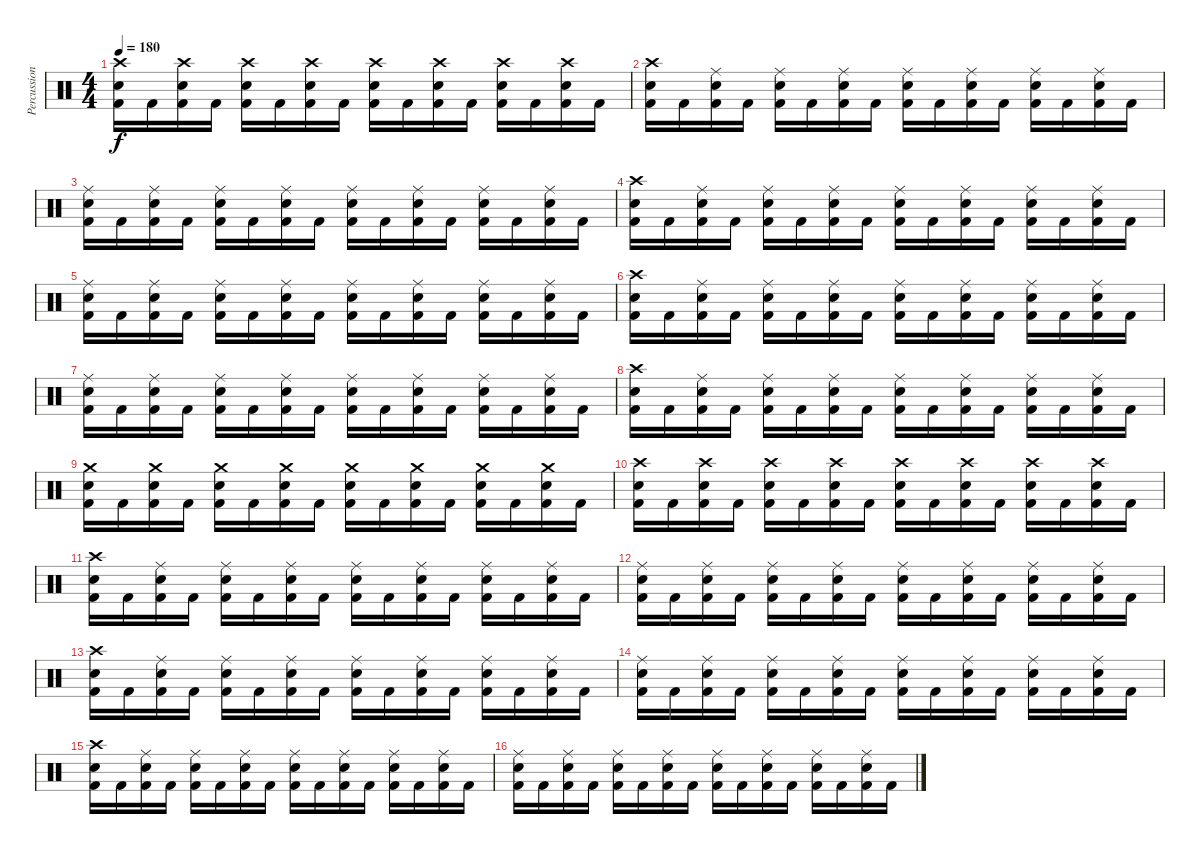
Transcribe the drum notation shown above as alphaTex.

\track ("Percussion" "Percussion") {instrument percussion}
\staff {score}
\articulation defaults
\ts (4 4)
\tempo 180
\clef neutral
\ks c
("Crash high (hit)" "Snare (hit) 2" "Kick (hit) 2").16{dy f} "Kick (hit) 2".16 ("Crash high (hit)" "Snare (hit) 2" "Kick (hit) 2").16 "Kick (hit) 2".16 ("Crash high (hit)" "Snare (hit) 2" "Kick (hit) 2").16 "Kick (hit) 2".16 ("Crash high (hit)" "Snare (hit) 2" "Kick (hit) 2").16 "Kick (hit) 2".16 ("Crash high (hit)" "Snare (hit) 2" "Kick (hit) 2").16 "Kick (hit) 2".16 ("Crash high (hit)" "Snare (hit) 2" "Kick (hit) 2").16 "Kick (hit) 2".16 ("Crash high (hit)" "Snare (hit) 2" "Kick (hit) 2").16 "Kick (hit) 2".16 ("Crash high (hit)" "Snare (hit) 2" "Kick (hit) 2").16 "Kick (hit) 2".16 |
("Crash high (hit)" "Snare (hit) 2" "Kick (hit) 2").16 "Kick (hit) 2".16 ("Ride (middle)" "Snare (hit) 2" "Kick (hit) 2").16 "Kick (hit) 2".16 ("Ride (middle)" "Snare (hit) 2" "Kick (hit) 2").16 "Kick (hit) 2".16 ("Ride (middle)" "Snare (hit) 2" "Kick (hit) 2").16 "Kick (hit) 2".16 ("Ride (middle)" "Snare (hit) 2" "Kick (hit) 2").16 "Kick (hit) 2".16 ("Ride (middle)" "Snare (hit) 2" "Kick (hit) 2").16 "Kick (hit) 2".16 ("Ride (middle)" "Snare (hit) 2" "Kick (hit) 2").16 "Kick (hit) 2".16 ("Ride (middle)" "Snare (hit) 2" "Kick (hit) 2").16 "Kick (hit) 2".16 |
("Ride (middle)" "Snare (hit) 2" "Kick (hit) 2").16 "Kick (hit) 2".16 ("Ride (middle)" "Snare (hit) 2" "Kick (hit) 2").16 "Kick (hit) 2".16 ("Ride (middle)" "Snare (hit) 2" "Kick (hit) 2").16 "Kick (hit) 2".16 ("Ride (middle)" "Snare (hit) 2" "Kick (hit) 2").16 "Kick (hit) 2".16 ("Ride (middle)" "Snare (hit) 2" "Kick (hit) 2").16 "Kick (hit) 2".16 ("Ride (middle)" "Snare (hit) 2" "Kick (hit) 2").16 "Kick (hit) 2".16 ("Ride (middle)" "Snare (hit) 2" "Kick (hit) 2").16 "Kick (hit) 2".16 ("Ride (middle)" "Snare (hit) 2" "Kick (hit) 2").16 "Kick (hit) 2".16 |
("Crash high (hit)" "Snare (hit) 2" "Kick (hit) 2").16 "Kick (hit) 2".16 ("Ride (middle)" "Snare (hit) 2" "Kick (hit) 2").16 "Kick (hit) 2".16 ("Ride (middle)" "Snare (hit) 2" "Kick (hit) 2").16 "Kick (hit) 2".16 ("Ride (middle)" "Snare (hit) 2" "Kick (hit) 2").16 "Kick (hit) 2".16 ("Ride (middle)" "Snare (hit) 2" "Kick (hit) 2").16 "Kick (hit) 2".16 ("Ride (middle)" "Snare (hit) 2" "Kick (hit) 2").16 "Kick (hit) 2".16 ("Ride (middle)" "Snare (hit) 2" "Kick (hit) 2").16 "Kick (hit) 2".16 ("Ride (middle)" "Snare (hit) 2" "Kick (hit) 2").16 "Kick (hit) 2".16 |
("Ride (middle)" "Snare (hit) 2" "Kick (hit) 2").16 "Kick (hit) 2".16 ("Ride (middle)" "Snare (hit) 2" "Kick (hit) 2").16 "Kick (hit) 2".16 ("Ride (middle)" "Snare (hit) 2" "Kick (hit) 2").16 "Kick (hit) 2".16 ("Ride (middle)" "Snare (hit) 2" "Kick (hit) 2").16 "Kick (hit) 2".16 ("Ride (middle)" "Snare (hit) 2" "Kick (hit) 2").16 "Kick (hit) 2".16 ("Ride (middle)" "Snare (hit) 2" "Kick (hit) 2").16 "Kick (hit) 2".16 ("Ride (middle)" "Snare (hit) 2" "Kick (hit) 2").16 "Kick (hit) 2".16 ("Ride (middle)" "Snare (hit) 2" "Kick (hit) 2").16 "Kick (hit) 2".16 |
("Crash high (hit)" "Snare (hit) 2" "Kick (hit) 2").16 "Kick (hit) 2".16 ("Ride (middle)" "Snare (hit) 2" "Kick (hit) 2").16 "Kick (hit) 2".16 ("Ride (middle)" "Snare (hit) 2" "Kick (hit) 2").16 "Kick (hit) 2".16 ("Ride (middle)" "Snare (hit) 2" "Kick (hit) 2").16 "Kick (hit) 2".16 ("Ride (middle)" "Snare (hit) 2" "Kick (hit) 2").16 "Kick (hit) 2".16 ("Ride (middle)" "Snare (hit) 2" "Kick (hit) 2").16 "Kick (hit) 2".16 ("Ride (middle)" "Snare (hit) 2" "Kick (hit) 2").16 "Kick (hit) 2".16 ("Ride (middle)" "Snare (hit) 2" "Kick (hit) 2").16 "Kick (hit) 2".16 |
("Ride (middle)" "Snare (hit) 2" "Kick (hit) 2").16 "Kick (hit) 2".16 ("Ride (middle)" "Snare (hit) 2" "Kick (hit) 2").16 "Kick (hit) 2".16 ("Ride (middle)" "Snare (hit) 2" "Kick (hit) 2").16 "Kick (hit) 2".16 ("Ride (middle)" "Snare (hit) 2" "Kick (hit) 2").16 "Kick (hit) 2".16 ("Ride (middle)" "Snare (hit) 2" "Kick (hit) 2").16 "Kick (hit) 2".16 ("Ride (middle)" "Snare (hit) 2" "Kick (hit) 2").16 "Kick (hit) 2".16 ("Ride (middle)" "Snare (hit) 2" "Kick (hit) 2").16 "Kick (hit) 2".16 ("Ride (middle)" "Snare (hit) 2" "Kick (hit) 2").16 "Kick (hit) 2".16 |
("Crash high (hit)" "Snare (hit) 2" "Kick (hit) 2").16 "Kick (hit) 2".16 ("Ride (middle)" "Snare (hit) 2" "Kick (hit) 2").16 "Kick (hit) 2".16 ("Ride (middle)" "Snare (hit) 2" "Kick (hit) 2").16 "Kick (hit) 2".16 ("Ride (middle)" "Snare (hit) 2" "Kick (hit) 2").16 "Kick (hit) 2".16 ("Ride (middle)" "Snare (hit) 2" "Kick (hit) 2").16 "Kick (hit) 2".16 ("Ride (middle)" "Snare (hit) 2" "Kick (hit) 2").16 "Kick (hit) 2".16 ("Ride (middle)" "Snare (hit) 2" "Kick (hit) 2").16 "Kick (hit) 2".16 ("Ride (middle)" "Snare (hit) 2" "Kick (hit) 2").16 "Kick (hit) 2".16 |
("Crash medium (hit)" "Snare (hit) 2" "Kick (hit) 2").16 "Kick (hit) 2".16 ("Crash medium (hit)" "Snare (hit) 2" "Kick (hit) 2").16 "Kick (hit) 2".16 ("Crash medium (hit)" "Snare (hit) 2" "Kick (hit) 2").16 "Kick (hit) 2".16 ("Crash medium (hit)" "Snare (hit) 2" "Kick (hit) 2").16 "Kick (hit) 2".16 ("Crash medium (hit)" "Snare (hit) 2" "Kick (hit) 2").16 "Kick (hit) 2".16 ("Crash medium (hit)" "Snare (hit) 2" "Kick (hit) 2").16 "Kick (hit) 2".16 ("Crash medium (hit)" "Snare (hit) 2" "Kick (hit) 2").16 "Kick (hit) 2".16 ("Crash medium (hit)" "Snare (hit) 2" "Kick (hit) 2").16 "Kick (hit) 2".16 |
("Crash high (hit)" "Snare (hit) 2" "Kick (hit) 2").16 "Kick (hit) 2".16 ("Crash high (hit)" "Snare (hit) 2" "Kick (hit) 2").16 "Kick (hit) 2".16 ("Crash high (hit)" "Snare (hit) 2" "Kick (hit) 2").16 "Kick (hit) 2".16 ("Crash high (hit)" "Snare (hit) 2" "Kick (hit) 2").16 "Kick (hit) 2".16 ("Crash high (hit)" "Snare (hit) 2" "Kick (hit) 2").16 "Kick (hit) 2".16 ("Crash high (hit)" "Snare (hit) 2" "Kick (hit) 2").16 "Kick (hit) 2".16 ("Crash high (hit)" "Snare (hit) 2" "Kick (hit) 2").16 "Kick (hit) 2".16 ("Crash high (hit)" "Snare (hit) 2" "Kick (hit) 2").16 "Kick (hit) 2".16 |
("Crash high (hit)" "Snare (hit) 2" "Kick (hit) 2").16 "Kick (hit) 2".16 ("Ride (middle)" "Snare (hit) 2" "Kick (hit) 2").16 "Kick (hit) 2".16 ("Ride (middle)" "Snare (hit) 2" "Kick (hit) 2").16 "Kick (hit) 2".16 ("Ride (middle)" "Snare (hit) 2" "Kick (hit) 2").16 "Kick (hit) 2".16 ("Ride (middle)" "Snare (hit) 2" "Kick (hit) 2").16 "Kick (hit) 2".16 ("Ride (middle)" "Snare (hit) 2" "Kick (hit) 2").16 "Kick (hit) 2".16 ("Ride (middle)" "Snare (hit) 2" "Kick (hit) 2").16 "Kick (hit) 2".16 ("Ride (middle)" "Snare (hit) 2" "Kick (hit) 2").16 "Kick (hit) 2".16 |
("Ride (middle)" "Snare (hit) 2" "Kick (hit) 2").16 "Kick (hit) 2".16 ("Ride (middle)" "Snare (hit) 2" "Kick (hit) 2").16 "Kick (hit) 2".16 ("Ride (middle)" "Snare (hit) 2" "Kick (hit) 2").16 "Kick (hit) 2".16 ("Ride (middle)" "Snare (hit) 2" "Kick (hit) 2").16 "Kick (hit) 2".16 ("Ride (middle)" "Snare (hit) 2" "Kick (hit) 2").16 "Kick (hit) 2".16 ("Ride (middle)" "Snare (hit) 2" "Kick (hit) 2").16 "Kick (hit) 2".16 ("Ride (middle)" "Snare (hit) 2" "Kick (hit) 2").16 "Kick (hit) 2".16 ("Ride (middle)" "Snare (hit) 2" "Kick (hit) 2").16 "Kick (hit) 2".16 |
("Crash high (hit)" "Snare (hit) 2" "Kick (hit) 2").16 "Kick (hit) 2".16 ("Ride (middle)" "Snare (hit) 2" "Kick (hit) 2").16 "Kick (hit) 2".16 ("Ride (middle)" "Snare (hit) 2" "Kick (hit) 2").16 "Kick (hit) 2".16 ("Ride (middle)" "Snare (hit) 2" "Kick (hit) 2").16 "Kick (hit) 2".16 ("Ride (middle)" "Snare (hit) 2" "Kick (hit) 2").16 "Kick (hit) 2".16 ("Ride (middle)" "Snare (hit) 2" "Kick (hit) 2").16 "Kick (hit) 2".16 ("Ride (middle)" "Snare (hit) 2" "Kick (hit) 2").16 "Kick (hit) 2".16 ("Ride (middle)" "Snare (hit) 2" "Kick (hit) 2").16 "Kick (hit) 2".16 |
("Ride (middle)" "Snare (hit) 2" "Kick (hit) 2").16 "Kick (hit) 2".16 ("Ride (middle)" "Snare (hit) 2" "Kick (hit) 2").16 "Kick (hit) 2".16 ("Ride (middle)" "Snare (hit) 2" "Kick (hit) 2").16 "Kick (hit) 2".16 ("Ride (middle)" "Snare (hit) 2" "Kick (hit) 2").16 "Kick (hit) 2".16 ("Ride (middle)" "Snare (hit) 2" "Kick (hit) 2").16 "Kick (hit) 2".16 ("Ride (middle)" "Snare (hit) 2" "Kick (hit) 2").16 "Kick (hit) 2".16 ("Ride (middle)" "Snare (hit) 2" "Kick (hit) 2").16 "Kick (hit) 2".16 ("Ride (middle)" "Snare (hit) 2" "Kick (hit) 2").16 "Kick (hit) 2".16 |
("Crash high (hit)" "Snare (hit) 2" "Kick (hit) 2").16 "Kick (hit) 2".16 ("Ride (middle)" "Snare (hit) 2" "Kick (hit) 2").16 "Kick (hit) 2".16 ("Ride (middle)" "Snare (hit) 2" "Kick (hit) 2").16 "Kick (hit) 2".16 ("Ride (middle)" "Snare (hit) 2" "Kick (hit) 2").16 "Kick (hit) 2".16 ("Ride (middle)" "Snare (hit) 2" "Kick (hit) 2").16 "Kick (hit) 2".16 ("Ride (middle)" "Snare (hit) 2" "Kick (hit) 2").16 "Kick (hit) 2".16 ("Ride (middle)" "Snare (hit) 2" "Kick (hit) 2").16 "Kick (hit) 2".16 ("Ride (middle)" "Snare (hit) 2" "Kick (hit) 2").16 "Kick (hit) 2".16 |
("Ride (middle)" "Snare (hit) 2" "Kick (hit) 2").16 "Kick (hit) 2".16 ("Ride (middle)" "Snare (hit) 2" "Kick (hit) 2").16 "Kick (hit) 2".16 ("Ride (middle)" "Snare (hit) 2" "Kick (hit) 2").16 "Kick (hit) 2".16 ("Ride (middle)" "Snare (hit) 2" "Kick (hit) 2").16 "Kick (hit) 2".16 ("Ride (middle)" "Snare (hit) 2" "Kick (hit) 2").16 "Kick (hit) 2".16 ("Ride (middle)" "Snare (hit) 2" "Kick (hit) 2").16 "Kick (hit) 2".16 ("Ride (middle)" "Snare (hit) 2" "Kick (hit) 2").16 "Kick (hit) 2".16 ("Ride (middle)" "Snare (hit) 2" "Kick (hit) 2").16 "Kick (hit) 2".16
